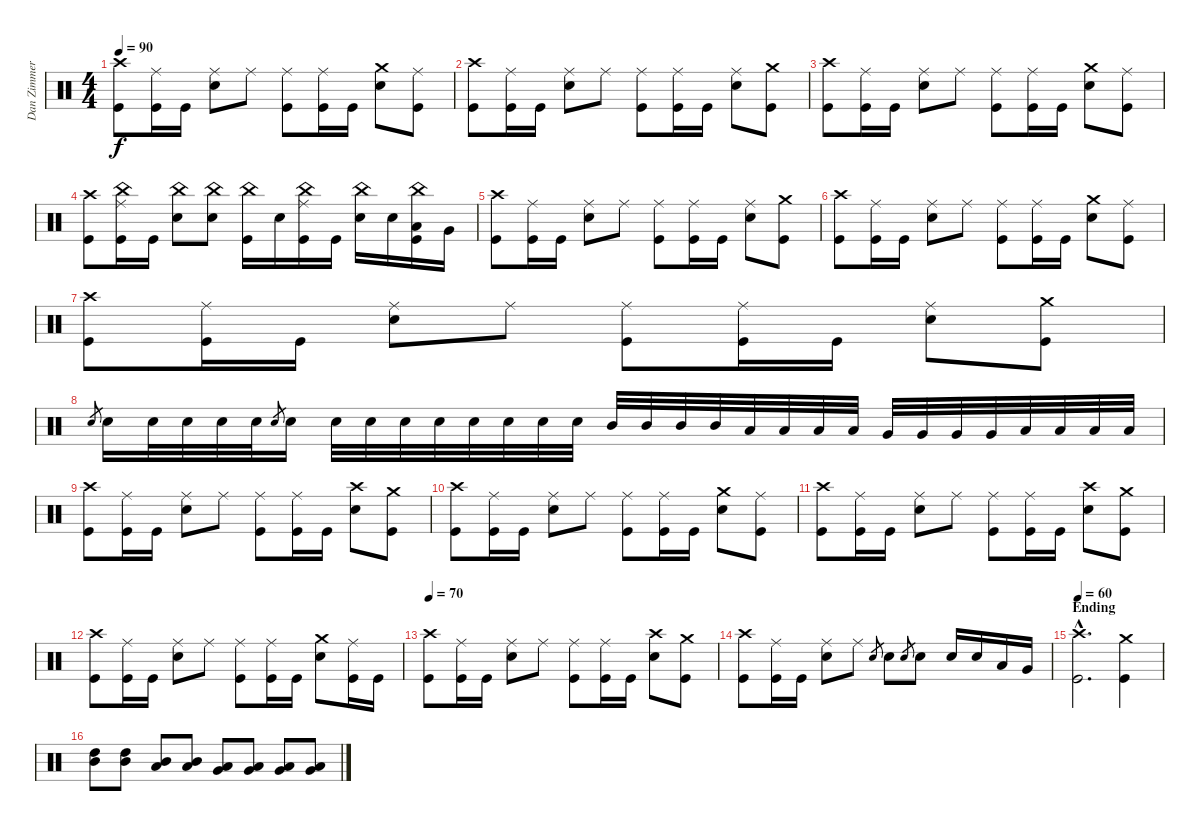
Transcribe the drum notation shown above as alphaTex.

\track ("Dan Zimmerman" "Dan Zimmer") {instrument percussion}
\staff {score}
\articulation defaults
\ts (4 4)
\tempo 90
\clef neutral
\ks c
("Crash high (hit)" "Kick (hit)").8{dy f} ("Ride (middle)" "Kick (hit)").16 "Kick (hit)".16 ("Ride (middle)" "Snare (hit) 2").8 "Ride (middle)".8 ("Ride (middle)" "Kick (hit)").8 ("Ride (middle)" "Kick (hit)").16 "Kick (hit)".16 ("Crash medium (hit)" "Snare (hit) 2").8 ("Ride (middle)" "Kick (hit)").8 |
("Crash high (hit)" "Kick (hit)").8 ("Ride (middle)" "Kick (hit)").16 "Kick (hit)".16 ("Ride (middle)" "Snare (hit) 2").8 "Ride (middle)".8 ("Ride (middle)" "Kick (hit)").8 ("Ride (middle)" "Kick (hit)").16 "Kick (hit)".16 ("Ride (middle)" "Snare (hit) 2").8 ("Crash medium (hit)" "Kick (hit)").8 |
("Crash high (hit)" "Kick (hit)").8 ("Ride (middle)" "Kick (hit)").16 "Kick (hit)".16 ("Ride (middle)" "Snare (hit) 2").8 "Ride (middle)".8 ("Ride (middle)" "Kick (hit)").8 ("Ride (middle)" "Kick (hit)").16 "Kick (hit)".16 ("Crash medium (hit)" "Snare (hit) 2").8 ("Ride (middle)" "Kick (hit)").8 |
("Crash high (hit)" "Kick (hit)").8 ("China (hit)" "Ride (middle)" "Kick (hit)").16 "Kick (hit)".16 ("China (hit)" "Snare (hit) 2").8 ("China (hit)" "Snare (hit) 2").8 ("China (hit)" "Kick (hit)").16 "Snare (hit) 2".16 ("China (hit)" "Ride (middle)" "Kick (hit)").16 "Kick (hit)".16 ("China (hit)" "Snare (hit) 2").16 "Snare (hit) 2".16 ("China (hit)" "Low Tom (hit)" "Kick (hit)").16 "Very Low Tom (hit)".16 |
("Crash high (hit)" "Kick (hit)").8 ("Ride (middle)" "Kick (hit)").16 "Kick (hit)".16 ("Ride (middle)" "Snare (hit) 2").8 "Ride (middle)".8 ("Ride (middle)" "Kick (hit)").8 ("Ride (middle)" "Kick (hit)").16 "Kick (hit)".16 ("Ride (middle)" "Snare (hit) 2").8 ("Crash medium (hit)" "Kick (hit)").8 |
("Crash high (hit)" "Kick (hit)").8 ("Ride (middle)" "Kick (hit)").16 "Kick (hit)".16 ("Ride (middle)" "Snare (hit) 2").8 "Ride (middle)".8 ("Ride (middle)" "Kick (hit)").8 ("Ride (middle)" "Kick (hit)").16 "Kick (hit)".16 ("Crash medium (hit)" "Snare (hit) 2").8 ("Ride (middle)" "Kick (hit)").8 |
("Crash high (hit)" "Kick (hit)").8 ("Ride (middle)" "Kick (hit)").16 "Kick (hit)".16 ("Ride (middle)" "Snare (hit) 2").8 "Ride (middle)".8 ("Ride (middle)" "Kick (hit)").8 ("Ride (middle)" "Kick (hit)").16 "Kick (hit)".16 ("Ride (middle)" "Snare (hit) 2").8 ("Crash medium (hit)" "Kick (hit)").8 |
"Snare (hit) 2".8{gr} "Snare (hit) 2".16 "Snare (hit) 2".32 "Snare (hit) 2".32 "Snare (hit) 2".32 "Snare (hit) 2".32 "Snare (hit) 2".8{gr} "Snare (hit) 2".16 "Snare (hit) 2".32 "Snare (hit) 2".32 "Snare (hit) 2".32 "Snare (hit) 2".32 "Snare (hit) 2".32 "Snare (hit) 2".32 "Snare (hit) 2".32 "Snare (hit) 2".32 "Mid Tom (hit)".32 "Mid Tom (hit)".32 "Mid Tom (hit)".32 "Mid Tom (hit)".32 "Low Tom (hit)".32 "Low Tom (hit)".32 "Low Tom (hit)".32 "Low Tom (hit)".32 "Very Low Tom (hit)".32 "Very Low Tom (hit)".32 "Very Low Tom (hit)".32 "Very Low Tom (hit)".32 "Low Floor Tom (hit)".32 "Low Floor Tom (hit)".32 "Low Floor Tom (hit)".32 "Low Floor Tom (hit)".32 |
("Crash high (hit)" "Kick (hit)").8 ("Ride (middle)" "Kick (hit)").16 "Kick (hit)".16 ("Ride (middle)" "Snare (hit) 2").8 "Ride (middle)".8 ("Ride (middle)" "Kick (hit)").8 ("Ride (middle)" "Kick (hit)").16 "Kick (hit)".16 ("Crash high (hit)" "Snare (hit) 2").8 ("Crash medium (hit)" "Kick (hit)").8 |
("Crash high (hit)" "Kick (hit)").8 ("Ride (middle)" "Kick (hit)").16 "Kick (hit)".16 ("Ride (middle)" "Snare (hit) 2").8 "Ride (middle)".8 ("Ride (middle)" "Kick (hit)").8 ("Ride (middle)" "Kick (hit)").16 "Kick (hit)".16 ("Crash medium (hit)" "Snare (hit) 2").8 ("Ride (middle)" "Kick (hit)").8 |
("Crash high (hit)" "Kick (hit)").8 ("Ride (middle)" "Kick (hit)").16 "Kick (hit)".16 ("Ride (middle)" "Snare (hit) 2").8 "Ride (middle)".8 ("Ride (middle)" "Kick (hit)").8 ("Ride (middle)" "Kick (hit)").16 "Kick (hit)".16 ("Crash high (hit)" "Snare (hit) 2").8 ("Crash medium (hit)" "Kick (hit)").8 |
("Crash high (hit)" "Kick (hit)").8 ("Ride (middle)" "Kick (hit)").16 "Kick (hit)".16 ("Ride (middle)" "Snare (hit) 2").8 "Ride (middle)".8 ("Ride (middle)" "Kick (hit)").8 ("Ride (middle)" "Kick (hit)").16 "Kick (hit)".16 ("Crash medium (hit)" "Snare (hit) 2").8 ("Ride (middle)" "Kick (hit)").16 "Kick (hit)".16 |
\tempo 70
("Crash high (hit)" "Kick (hit)").8 ("Ride (middle)" "Kick (hit)").16 "Kick (hit)".16 ("Ride (middle)" "Snare (hit) 2").8 "Ride (middle)".8 ("Ride (middle)" "Kick (hit)").8 ("Ride (middle)" "Kick (hit)").16 "Kick (hit)".16 ("Crash high (hit)" "Snare (hit) 2").8 ("Crash medium (hit)" "Kick (hit)").8 |
("Crash high (hit)" "Kick (hit)").8 ("Ride (middle)" "Kick (hit)").16 "Kick (hit)".16 ("Ride (middle)" "Snare (hit) 2").8 "Ride (middle)".8 "Snare (hit) 2".8{gr} "Snare (hit) 2".8 "Snare (hit) 2".8{gr} "Snare (hit) 2".8 "Snare (hit) 2".16 "Snare (hit) 2".16 "Low Tom (hit)".16 "Very Low Tom (hit)".16 |
\section ("" "Ending")
\tempo 60
("Crash high (hit)"{hac} "Kick (hit)"{hac}).2{d} ("Crash medium (hit)" "Kick (hit)").4 |
("High Tom (hit)" "Mid Tom (hit)").8 ("High Tom (hit)" "Mid Tom (hit)").8 ("Mid Tom (hit)" "Low Tom (hit)").8 ("Mid Tom (hit)" "Low Tom (hit)").8 ("Low Tom (hit)" "Very Low Tom (hit)").8 ("Low Tom (hit)" "Very Low Tom (hit)").8 ("Very Low Tom (hit)" "Low Floor Tom (hit)").8 ("Very Low Tom (hit)" "Low Floor Tom (hit)").8
